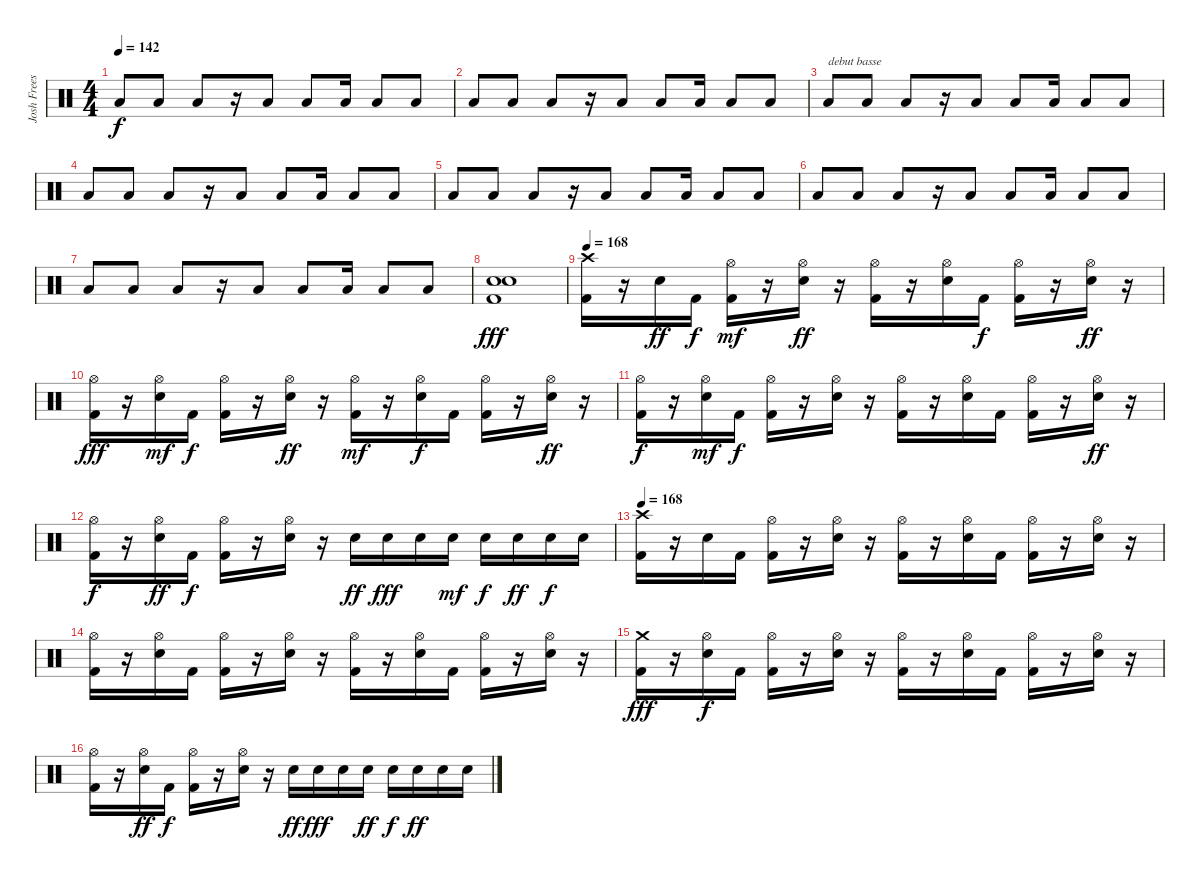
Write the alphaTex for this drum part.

\track ("Josh Freese" "Josh Frees") {instrument percussion}
\staff {score}
\articulation defaults
\ts (4 4)
\tempo 142
\clef neutral
\ks c "Low Tom (hit)".8{dy f} "Low Tom (hit)".8 "Low Floor Tom (hit)".8
r.16 "Low Tom (hit)".8 "Low Tom (hit)".8 "Low Tom (hit)".16 "Low Floor Tom (hit)".8 "Low Floor Tom (hit)".8 |
"Low Tom (hit)".8 "Low Tom (hit)".8 "Low Floor Tom (hit)".8 r.16 "Low Tom (hit)".8 "Low Tom (hit)".8 "Low Tom (hit)".16 "Low Floor Tom (hit)".8 "Low Floor Tom (hit)".8 |
"Low Tom (hit)".8{txt "debut basse"} "Low Tom (hit)".8 "Low Floor Tom (hit)".8 r.16 "Low Tom (hit)".8 "Low Tom (hit)".8 "Low Tom (hit)".16 "Low Floor Tom (hit)".8 "Low Floor Tom (hit)".8 |
"Low Tom (hit)".8 "Low Tom (hit)".8 "Low Floor Tom (hit)".8 r.16 "Low Tom (hit)".8 "Low Tom (hit)".8 "Low Tom (hit)".16 "Low Floor Tom (hit)".8 "Low Floor Tom (hit)".8 |
"Low Tom (hit)".8 "Low Tom (hit)".8 "Low Floor Tom (hit)".8 r.16 "Low Tom (hit)".8 "Low Tom (hit)".8 "Low Tom (hit)".16 "Low Floor Tom (hit)".8 "Low Floor Tom (hit)".8 |
"Low Tom (hit)".8 "Low Tom (hit)".8 "Low Floor Tom (hit)".8 r.16 "Low Tom (hit)".8 "Low Tom (hit)".8 "Low Tom (hit)".16 "Low Floor Tom (hit)".8 "Low Floor Tom (hit)".8 |
"Low Tom (hit)".8 "Low Tom (hit)".8 "Low Floor Tom (hit)".8 r.16 "Low Tom (hit)".8 "Low Tom (hit)".8 "Low Tom (hit)".16 "Low Floor Tom (hit)".8 "Low Floor Tom (hit)".8 |
("Electric Snare (hit)" "Electric Snare (hit)" "Kick (hit) 2").1{dy fff} |
\tempo 168
("Crash high (hit)" "Kick (hit) 2").16 r.16 "Electric Snare (hit)".16{dy ff} "Kick (hit) 2".16{dy f} ("Hi-Hat (open)" "Kick (hit) 2").16{dy mf} r.16 ("Hi-Hat (open)" "Electric Snare (hit)").16{dy ff} r.16 ("Hi-Hat (open)" "Kick (hit) 2").16 r.16 ("Hi-Hat (open)" "Electric Snare (hit)").16 "Kick (hit) 2".16{dy f} ("Hi-Hat (open)" "Kick (hit) 2").16 r.16 ("Hi-Hat (open)" "Electric Snare (hit)").16{dy ff} r.16 |
("Hi-Hat (open)" "Kick (hit) 2").16{dy fff} r.16 ("Hi-Hat (open)" "Electric Snare (hit)").16{dy mf} "Kick (hit) 2".16{dy f} ("Hi-Hat (open)" "Kick (hit) 2").16 r.16 ("Hi-Hat (open)" "Electric Snare (hit)").16{dy ff} r.16 ("Hi-Hat (open)" "Kick (hit) 2").16{dy mf} r.16 ("Hi-Hat (open)" "Electric Snare (hit)").16{dy f} "Kick (hit) 2".16 ("Hi-Hat (open)" "Kick (hit) 2").16 r.16 ("Hi-Hat (open)" "Electric Snare (hit)").16{dy ff} r.16 |
("Hi-Hat (open)" "Kick (hit) 2").16{dy f} r.16 ("Hi-Hat (open)" "Electric Snare (hit)").16{dy mf} "Kick (hit) 2".16{dy f} ("Hi-Hat (open)" "Kick (hit) 2").16 r.16 ("Hi-Hat (open)" "Electric Snare (hit)").16 r.16 ("Hi-Hat (open)" "Kick (hit) 2").16 r.16 ("Hi-Hat (open)" "Electric Snare (hit)").16 "Kick (hit) 2".16 ("Hi-Hat (open)" "Kick (hit) 2").16 r.16 ("Hi-Hat (open)" "Electric Snare (hit)").16{dy ff} r.16 |
("Hi-Hat (open)" "Kick (hit) 2").16{dy f} r.16 ("Hi-Hat (open)" "Electric Snare (hit)").16{dy ff} "Kick (hit) 2".16{dy f} ("Hi-Hat (open)" "Kick (hit) 2").16 r.16 ("Hi-Hat (open)" "Electric Snare (hit)").16 r.16 "Electric Snare (hit)".16{dy ff} "Electric Snare (hit)".16{dy fff} "Electric Snare (hit)".16 "Electric Snare (hit)".16{dy mf} "Electric Snare (hit)".16{dy f} "Electric Snare (hit)".16{dy ff} "Electric Snare (hit)".16{dy f} "Electric Snare (hit)".16 |
\tempo 168
("Crash high (hit)" "Kick (hit) 2").16 r.16 "Electric Snare (hit)".16 "Kick (hit) 2".16 ("Hi-Hat (open)" "Kick (hit) 2").16 r.16 ("Hi-Hat (open)" "Electric Snare (hit)").16 r.16 ("Hi-Hat (open)" "Kick (hit) 2").16 r.16 ("Hi-Hat (open)" "Electric Snare (hit)").16 "Kick (hit) 2".16 ("Hi-Hat (open)" "Kick (hit) 2").16 r.16 ("Hi-Hat (open)" "Electric Snare (hit)").16 r.16 |
("Hi-Hat (open)" "Kick (hit) 2").16 r.16 ("Hi-Hat (open)" "Electric Snare (hit)").16 "Kick (hit) 2".16 ("Hi-Hat (open)" "Kick (hit) 2").16 r.16 ("Hi-Hat (open)" "Electric Snare (hit)").16 r.16 ("Hi-Hat (open)" "Kick (hit) 2").16 r.16 ("Hi-Hat (open)" "Electric Snare (hit)").16 "Kick (hit) 2".16 ("Hi-Hat (open)" "Kick (hit) 2").16 r.16 ("Hi-Hat (open)" "Electric Snare (hit)").16 r.16 |
("Crash medium (hit)" "Kick (hit) 2").16{dy fff} r.16 ("Hi-Hat (open)" "Electric Snare (hit)").16{dy f} "Kick (hit) 2".16 ("Hi-Hat (open)" "Kick (hit) 2").16 r.16 ("Hi-Hat (open)" "Electric Snare (hit)").16 r.16 ("Hi-Hat (open)" "Kick (hit) 2").16 r.16 ("Hi-Hat (open)" "Electric Snare (hit)").16 "Kick (hit) 2".16 ("Hi-Hat (open)" "Kick (hit) 2").16 r.16 ("Hi-Hat (open)" "Electric Snare (hit)").16 r.16 |
("Hi-Hat (open)" "Kick (hit) 2").16 r.16 ("Hi-Hat (open)" "Electric Snare (hit)").16{dy ff} "Kick (hit) 2".16{dy f} ("Hi-Hat (open)" "Kick (hit) 2").16 r.16 ("Hi-Hat (open)" "Electric Snare (hit)").16 r.16 "Electric Snare (hit)".16{dy ff} "Electric Snare (hit)".16{dy fff} "Electric Snare (hit)".16 "Electric Snare (hit)".16{dy ff} "Electric Snare (hit)".16{dy f} "Electric Snare (hit)".16{dy ff} "Electric Snare (hit)".16 "Electric Snare (hit)".16
